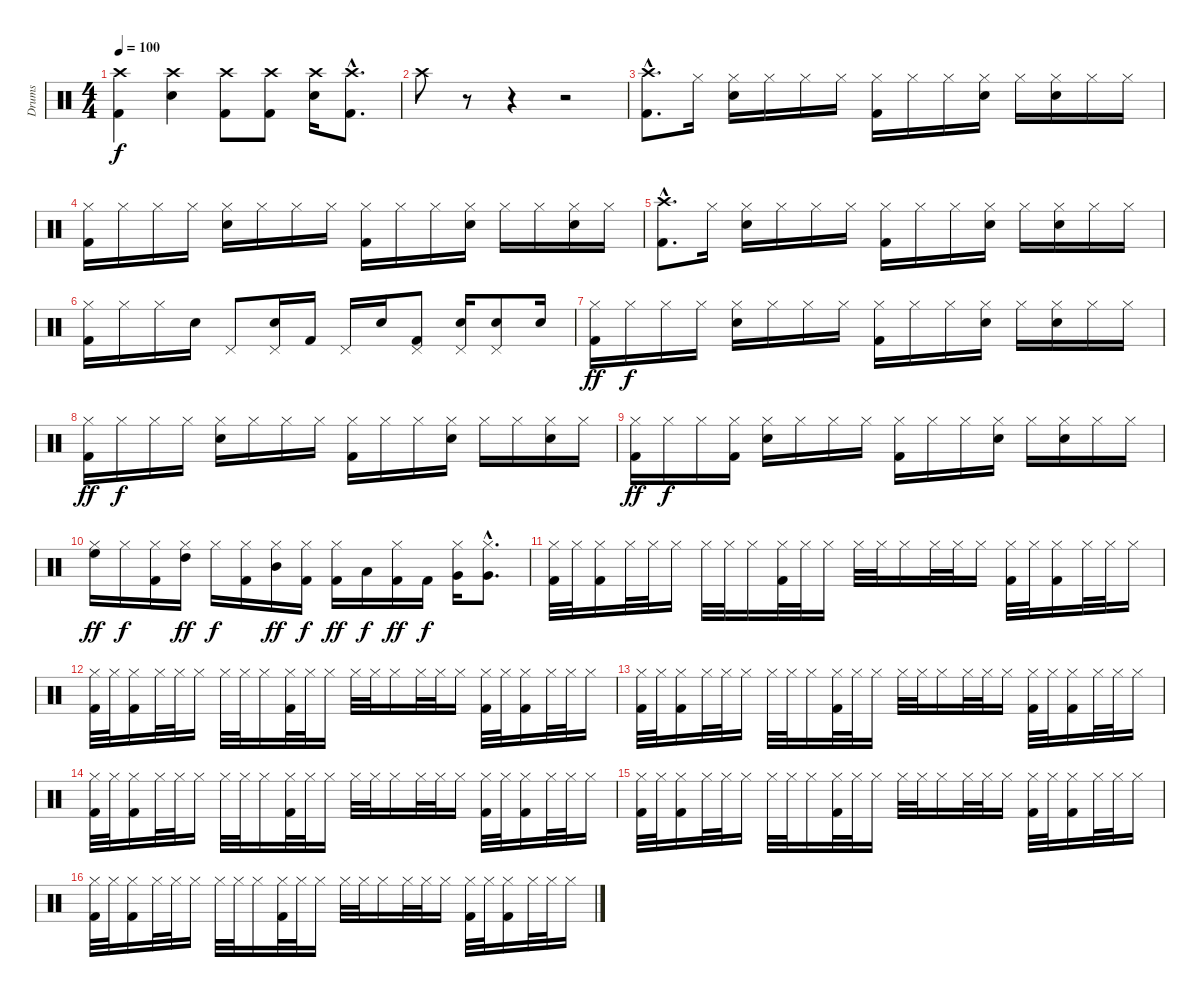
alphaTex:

\track ("Drums" "Drums") {instrument percussion}
\staff {score}
\articulation defaults
\ts (4 4)
\tempo 100
\clef neutral
\ks c
("Crash high (hit)" "Kick (hit) 2").4{dy f} ("Crash high (hit)" "Electric Snare (hit)").4 ("Crash high (hit)" "Kick (hit) 2").8 ("Crash high (hit)" "Kick (hit) 2").8 ("Crash high (hit)" "Electric Snare (hit)").16 ("Crash high (hit)"{hac} "Kick (hit) 2"{hac}).8{d} |
"Crash high (hit)".8 r.8 r.4 r.2 |
("Crash high (hit)"{hac} "Kick (hit) 2"{hac}).8{d} "Hi-Hat (closed)".16 ("Hi-Hat (closed)" "Electric Snare (hit)").16 "Hi-Hat (closed)".16 "Hi-Hat (closed)".16 "Hi-Hat (closed)".16 ("Hi-Hat (closed)" "Kick (hit) 2").16 "Hi-Hat (closed)".16 "Hi-Hat (closed)".16 ("Hi-Hat (closed)" "Electric Snare (hit)").16 "Hi-Hat (closed)".16 ("Hi-Hat (closed)" "Electric Snare (hit)").16 "Hi-Hat (closed)".16 "Hi-Hat (closed)".16 |
("Hi-Hat (closed)" "Kick (hit) 2").16 "Hi-Hat (closed)".16 "Hi-Hat (closed)".16 "Hi-Hat (closed)".16 ("Hi-Hat (closed)" "Electric Snare (hit)").16 "Hi-Hat (closed)".16 "Hi-Hat (closed)".16 "Hi-Hat (closed)".16 ("Hi-Hat (closed)" "Kick (hit) 2").16 "Hi-Hat (closed)".16 "Hi-Hat (closed)".16 ("Hi-Hat (closed)" "Electric Snare (hit)").16 "Hi-Hat (closed)".16 "Hi-Hat (closed)".16 ("Hi-Hat (closed)" "Electric Snare (hit)").16 "Hi-Hat (closed)".16 |
("Crash high (hit)"{hac} "Kick (hit) 2"{hac}).8{d} "Hi-Hat (closed)".16 ("Hi-Hat (closed)" "Electric Snare (hit)").16 "Hi-Hat (closed)".16 "Hi-Hat (closed)".16 "Hi-Hat (closed)".16 ("Hi-Hat (closed)" "Kick (hit) 2").16 "Hi-Hat (closed)".16 "Hi-Hat (closed)".16 ("Hi-Hat (closed)" "Electric Snare (hit)").16 "Hi-Hat (closed)".16 ("Hi-Hat (closed)" "Electric Snare (hit)").16 "Hi-Hat (closed)".16 "Hi-Hat (closed)".16 |
("Hi-Hat (closed)" "Kick (hit) 2").16 "Hi-Hat (closed)".16 "Hi-Hat (closed)".16 "Electric Snare (hit)".16 "Pedal Hi-Hat (hit)".8 ("Pedal Hi-Hat (hit)" "Electric Snare (hit)").16 "Kick (hit) 2".16 "Pedal Hi-Hat (hit)".16 "Electric Snare (hit)".16 ("Pedal Hi-Hat (hit)" "Kick (hit) 2").8 ("Pedal Hi-Hat (hit)" "Electric Snare (hit)").16 ("Pedal Hi-Hat (hit)" "Electric Snare (hit)").8 "Electric Snare (hit)".16 |
("Hi-Hat (closed)" "Kick (hit) 2").16{dy ff} "Hi-Hat (closed)".16{dy f} "Hi-Hat (closed)".16 "Hi-Hat (closed)".16 ("Hi-Hat (closed)" "Electric Snare (hit)").16 "Hi-Hat (closed)".16 "Hi-Hat (closed)".16 "Hi-Hat (closed)".16 ("Hi-Hat (closed)" "Kick (hit) 2").16 "Hi-Hat (closed)".16 "Hi-Hat (closed)".16 ("Hi-Hat (closed)" "Electric Snare (hit)").16 "Hi-Hat (closed)".16 ("Hi-Hat (closed)" "Electric Snare (hit)").16 "Hi-Hat (closed)".16 "Hi-Hat (closed)".16 |
("Hi-Hat (closed)" "Kick (hit) 2").16{dy ff} "Hi-Hat (closed)".16{dy f} "Hi-Hat (closed)".16 "Hi-Hat (closed)".16 ("Hi-Hat (closed)" "Electric Snare (hit)").16 "Hi-Hat (closed)".16 "Hi-Hat (closed)".16 "Hi-Hat (closed)".16 ("Hi-Hat (closed)" "Kick (hit) 2").16 "Hi-Hat (closed)".16 "Hi-Hat (closed)".16 ("Hi-Hat (closed)" "Electric Snare (hit)").16 "Hi-Hat (closed)".16 "Hi-Hat (closed)".16 ("Hi-Hat (closed)" "Electric Snare (hit)").16 "Hi-Hat (closed)".16 |
("Hi-Hat (closed)" "Kick (hit) 2").16{dy ff} "Hi-Hat (closed)".16{dy f} "Hi-Hat (closed)".16 ("Hi-Hat (closed)" "Kick (hit) 2").16 ("Hi-Hat (closed)" "Electric Snare (hit)").16 "Hi-Hat (closed)".16 "Hi-Hat (closed)".16 "Hi-Hat (closed)".16 ("Hi-Hat (closed)" "Kick (hit) 2").16 "Hi-Hat (closed)".16 "Hi-Hat (closed)".16 ("Hi-Hat (closed)" "Electric Snare (hit)").16 "Hi-Hat (closed)".16 ("Hi-Hat (closed)" "Electric Snare (hit)").16 "Hi-Hat (closed)".16 "Hi-Hat (closed)".16 |
("Hi-Hat (closed)" "High Floor Tom (hit)").16{dy ff} "Hi-Hat (closed)".16{dy f} ("Hi-Hat (closed)" "Kick (hit) 2").16 ("Hi-Hat (closed)" "High Tom (hit)").16{dy ff} "Hi-Hat (closed)".16{dy f} ("Hi-Hat (closed)" "Kick (hit) 2").16 ("Hi-Hat (closed)" "Mid Tom (hit)").16{dy ff} ("Hi-Hat (closed)" "Kick (hit) 2").16{dy f} ("Hi-Hat (closed)" "Kick (hit) 2").16{dy ff} "Low Tom (hit)".16{dy f} ("Hi-Hat (closed)" "Kick (hit) 2").16{dy ff} "Kick (hit) 2".16{dy f} ("Hi-Hat (closed)" "Very Low Tom (hit)").16 ("Hi-Hat (closed)"{hac} "Very Low Tom (hit)"{hac}).8{d} |
("Hi-Hat (closed)" "Kick (hit) 2").32 "Hi-Hat (closed)".32 ("Hi-Hat (closed)" "Kick (hit) 2").16 "Hi-Hat (closed)".32 "Hi-Hat (closed)".32 "Hi-Hat (closed)".16 "Hi-Hat (closed)".32 "Hi-Hat (closed)".32 "Hi-Hat (closed)".16 ("Hi-Hat (closed)" "Kick (hit) 2").32 "Hi-Hat (closed)".32 "Hi-Hat (closed)".16 "Hi-Hat (closed)".32 "Hi-Hat (closed)".32 "Hi-Hat (closed)".16 "Hi-Hat (closed)".32 "Hi-Hat (closed)".32 "Hi-Hat (closed)".16 ("Hi-Hat (closed)" "Kick (hit) 2").32 "Hi-Hat (closed)".32 ("Hi-Hat (closed)" "Kick (hit) 2").16 "Hi-Hat (closed)".32 "Hi-Hat (closed)".32 "Hi-Hat (closed)".16 |
("Hi-Hat (closed)" "Kick (hit) 2").32 "Hi-Hat (closed)".32 ("Hi-Hat (closed)" "Kick (hit) 2").16 "Hi-Hat (closed)".32 "Hi-Hat (closed)".32 "Hi-Hat (closed)".16 "Hi-Hat (closed)".32 "Hi-Hat (closed)".32 "Hi-Hat (closed)".16 ("Hi-Hat (closed)" "Kick (hit) 2").32 "Hi-Hat (closed)".32 "Hi-Hat (closed)".16 "Hi-Hat (closed)".32 "Hi-Hat (closed)".32 "Hi-Hat (closed)".16 "Hi-Hat (closed)".32 "Hi-Hat (closed)".32 "Hi-Hat (closed)".16 ("Hi-Hat (closed)" "Kick (hit) 2").32 "Hi-Hat (closed)".32 ("Hi-Hat (closed)" "Kick (hit) 2").16 "Hi-Hat (closed)".32 "Hi-Hat (closed)".32 "Hi-Hat (closed)".16 |
("Hi-Hat (closed)" "Kick (hit) 2").32 "Hi-Hat (closed)".32 ("Hi-Hat (closed)" "Kick (hit) 2").16 "Hi-Hat (closed)".32 "Hi-Hat (closed)".32 "Hi-Hat (closed)".16 "Hi-Hat (closed)".32 "Hi-Hat (closed)".32 "Hi-Hat (closed)".16 ("Hi-Hat (closed)" "Kick (hit) 2").32 "Hi-Hat (closed)".32 "Hi-Hat (closed)".16 "Hi-Hat (closed)".32 "Hi-Hat (closed)".32 "Hi-Hat (closed)".16 "Hi-Hat (closed)".32 "Hi-Hat (closed)".32 "Hi-Hat (closed)".16 ("Hi-Hat (closed)" "Kick (hit) 2").32 "Hi-Hat (closed)".32 ("Hi-Hat (closed)" "Kick (hit) 2").16 "Hi-Hat (closed)".32 "Hi-Hat (closed)".32 "Hi-Hat (closed)".16 |
("Hi-Hat (closed)" "Kick (hit) 2").32 "Hi-Hat (closed)".32 ("Hi-Hat (closed)" "Kick (hit) 2").16 "Hi-Hat (closed)".32 "Hi-Hat (closed)".32 "Hi-Hat (closed)".16 "Hi-Hat (closed)".32 "Hi-Hat (closed)".32 "Hi-Hat (closed)".16 ("Hi-Hat (closed)" "Kick (hit) 2").32 "Hi-Hat (closed)".32 "Hi-Hat (closed)".16 "Hi-Hat (closed)".32 "Hi-Hat (closed)".32 "Hi-Hat (closed)".16 "Hi-Hat (closed)".32 "Hi-Hat (closed)".32 "Hi-Hat (closed)".16 ("Hi-Hat (closed)" "Kick (hit) 2").32 "Hi-Hat (closed)".32 ("Hi-Hat (closed)" "Kick (hit) 2").16 "Hi-Hat (closed)".32 "Hi-Hat (closed)".32 "Hi-Hat (closed)".16 |
("Hi-Hat (closed)" "Kick (hit) 2").32 "Hi-Hat (closed)".32 ("Hi-Hat (closed)" "Kick (hit) 2").16 "Hi-Hat (closed)".32 "Hi-Hat (closed)".32 "Hi-Hat (closed)".16 "Hi-Hat (closed)".32 "Hi-Hat (closed)".32 "Hi-Hat (closed)".16 ("Hi-Hat (closed)" "Kick (hit) 2").32 "Hi-Hat (closed)".32 "Hi-Hat (closed)".16 "Hi-Hat (closed)".32 "Hi-Hat (closed)".32 "Hi-Hat (closed)".16 "Hi-Hat (closed)".32 "Hi-Hat (closed)".32 "Hi-Hat (closed)".16 ("Hi-Hat (closed)" "Kick (hit) 2").32 "Hi-Hat (closed)".32 ("Hi-Hat (closed)" "Kick (hit) 2").16 "Hi-Hat (closed)".32 "Hi-Hat (closed)".32 "Hi-Hat (closed)".16 |
("Hi-Hat (closed)" "Kick (hit) 2").32 "Hi-Hat (closed)".32 ("Hi-Hat (closed)" "Kick (hit) 2").16 "Hi-Hat (closed)".32 "Hi-Hat (closed)".32 "Hi-Hat (closed)".16 "Hi-Hat (closed)".32 "Hi-Hat (closed)".32 "Hi-Hat (closed)".16 ("Hi-Hat (closed)" "Kick (hit) 2").32 "Hi-Hat (closed)".32 "Hi-Hat (closed)".16 "Hi-Hat (closed)".32 "Hi-Hat (closed)".32 "Hi-Hat (closed)".16 "Hi-Hat (closed)".32 "Hi-Hat (closed)".32 "Hi-Hat (closed)".16 ("Hi-Hat (closed)" "Kick (hit) 2").32 "Hi-Hat (closed)".32 ("Hi-Hat (closed)" "Kick (hit) 2").16 "Hi-Hat (closed)".32 "Hi-Hat (closed)".32 "Hi-Hat (closed)".16
